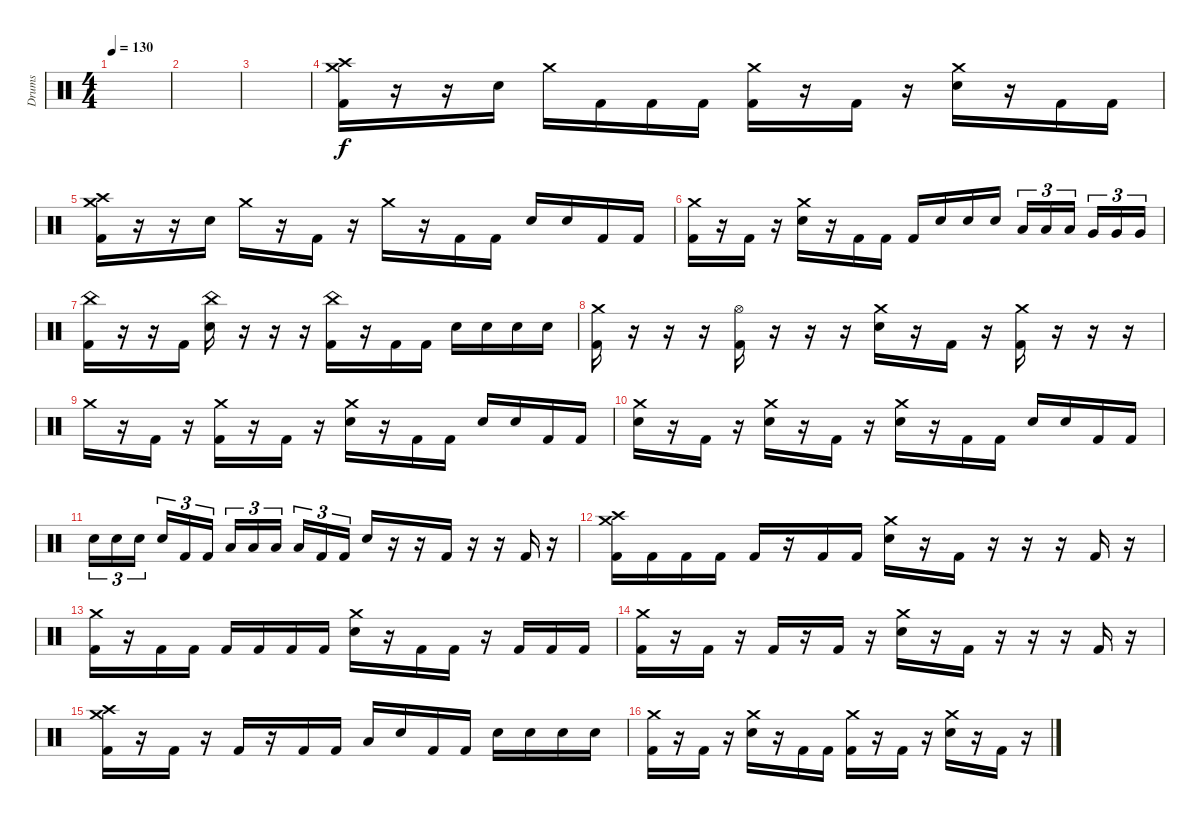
\track ("Drums" "Drums") {instrument percussion}
\staff {score}
\articulation defaults
\ts (4 4)
\tempo 130
\clef neutral
\ks c
|
|
|
("Crash medium (hit)" "Crash high (hit)" "Kick (hit) 2").16{dy f} r.16 r.16 "Electric Snare (hit)".16 "Crash medium (hit)".16 "Kick (hit) 2".16 "Kick (hit) 2".16 "Kick (hit) 2".16 ("Crash medium (hit)" "Kick (hit) 2").16 r.16 "Kick (hit) 2".16 r.16 ("Crash medium (hit)" "Electric Snare (hit)").16 r.16 "Kick (hit) 2".16 "Kick (hit) 2".16 |
("Crash medium (hit)" "Crash high (hit)" "Kick (hit) 2").16 r.16 r.16 "Electric Snare (hit)".16 "Crash medium (hit)".16 r.16 "Kick (hit) 2".16 r.16 "Crash medium (hit)".16 r.16 "Kick (hit) 2".16 "Kick (hit) 2".16 "Electric Snare (hit)".16 "Electric Snare (hit)".16 "Kick (hit) 2".16 "Kick (hit) 2".16 |
("Crash medium (hit)" "Kick (hit) 2").16 r.16 "Kick (hit) 2".16 r.16 ("Crash medium (hit)" "Electric Snare (hit)").16 r.16 "Kick (hit) 2".16 "Kick (hit) 2".16 "Kick (hit) 2".16 "Electric Snare (hit)".16 "Electric Snare (hit)".16 "Electric Snare (hit)".16 "Low Tom (hit)".16{tu (3 2)} "Low Tom (hit)".16{tu (3 2)} "Low Tom (hit)".16{tu (3 2) beam splitsecondary} "Very Low Tom (hit)".16{tu (3 2)} "Very Low Tom (hit)".16{tu (3 2)} "Very Low Tom (hit)".16{tu (3 2)} |
("China (hit)" "Kick (hit) 2").16 r.16 r.16 "Kick (hit) 2".16 ("China (hit)" "Electric Snare (hit)").16 r.16 r.16 r.16 ("China (hit)" "Kick (hit) 2").16 r.16 "Kick (hit) 2".16 "Kick (hit) 2".16 "Electric Snare (hit)".16 "Electric Snare (hit)".16 "Electric Snare (hit)".16 "Electric Snare (hit)".16 |
("Crash medium (hit)" "Kick (hit) 2").16 r.16 r.16 r.16 ("Hi-Hat (open)" "Kick (hit) 2").16 r.16 r.16 r.16 ("Crash medium (hit)" "Electric Snare (hit)").16 r.16 "Kick (hit) 2".16 r.16 ("Crash medium (hit)" "Kick (hit) 2").16 r.16 r.16 r.16 |
"Crash medium (hit)".16 r.16 "Kick (hit) 2".16 r.16 ("Crash medium (hit)" "Kick (hit) 2").16 r.16 "Kick (hit) 2".16 r.16 ("Crash medium (hit)" "Electric Snare (hit)").16 r.16 "Kick (hit) 2".16 "Kick (hit) 2".16 "Electric Snare (hit)".16 "Electric Snare (hit)".16 "Kick (hit) 2".16 "Kick (hit) 2".16 |
("Crash medium (hit)" "Electric Snare (hit)").16 r.16 "Kick (hit) 2".16 r.16 ("Crash medium (hit)" "Electric Snare (hit)").16 r.16 "Kick (hit) 2".16 r.16 ("Crash medium (hit)" "Electric Snare (hit)").16 r.16 "Kick (hit) 2".16 "Kick (hit) 2".16 "Electric Snare (hit)".16 "Electric Snare (hit)".16 "Kick (hit) 2".16 "Kick (hit) 2".16 |
"Electric Snare (hit)".16{tu (3 2)} "Electric Snare (hit)".16{tu (3 2)} "Electric Snare (hit)".16{tu (3 2) beam splitsecondary} "Electric Snare (hit)".16{tu (3 2)} "Kick (hit) 2".16{tu (3 2)} "Kick (hit) 2".16{tu (3 2)} "Low Tom (hit)".16{tu (3 2)} "Low Tom (hit)".16{tu (3 2)} "Low Tom (hit)".16{tu (3 2) beam splitsecondary} "Low Tom (hit)".16{tu (3 2)} "Kick (hit) 2".16{tu (3 2)} "Kick (hit) 2".16{tu (3 2)} "Electric Snare (hit)".16 r.16 r.16 "Kick (hit) 2".16 r.16 r.16 "Kick (hit) 2".16 r.16 |
("Crash medium (hit)" "Crash high (hit)" "Kick (hit) 2").16 "Kick (hit) 2".16 "Kick (hit) 2".16 "Kick (hit) 2".16 "Kick (hit) 2".16 r.16 "Kick (hit) 2".16 "Kick (hit) 2".16 ("Crash medium (hit)" "Electric Snare (hit)").16 r.16 "Kick (hit) 2".16 r.16 r.16 r.16 "Kick (hit) 2".16 r.16 |
("Crash medium (hit)" "Kick (hit) 2").16 r.16 "Kick (hit) 2".16 "Kick (hit) 2".16 "Kick (hit) 2".16 "Kick (hit) 2".16 "Kick (hit) 2".16 "Kick (hit) 2".16 ("Crash medium (hit)" "Electric Snare (hit)").16 r.16 "Kick (hit) 2".16 "Kick (hit) 2".16 r.16 "Kick (hit) 2".16 "Kick (hit) 2".16 "Kick (hit) 2".16 |
("Crash medium (hit)" "Kick (hit) 2").16 r.16 "Kick (hit) 2".16 r.16 "Kick (hit) 2".16 r.16 "Kick (hit) 2".16 r.16 ("Crash medium (hit)" "Electric Snare (hit)").16 r.16 "Kick (hit) 2".16 r.16 r.16 r.16 "Kick (hit) 2".16 r.16 |
("Crash medium (hit)" "Crash high (hit)" "Kick (hit) 2").16 r.16 "Kick (hit) 2".16 r.16 "Kick (hit) 2".16 r.16 "Kick (hit) 2".16 "Kick (hit) 2".16 "Low Tom (hit)".16 "Electric Snare (hit)".16 "Kick (hit) 2".16 "Kick (hit) 2".16 "Electric Snare (hit)".16 "Electric Snare (hit)".16 "Electric Snare (hit)".16 "Electric Snare (hit)".16 |
("Crash medium (hit)" "Kick (hit) 2").16 r.16 "Kick (hit) 2".16 r.16 ("Crash medium (hit)" "Electric Snare (hit)").16 r.16 "Kick (hit) 2".16 "Kick (hit) 2".16 ("Crash medium (hit)" "Kick (hit) 2").16 r.16 "Kick (hit) 2".16 r.16 ("Crash medium (hit)" "Electric Snare (hit)").16 r.16 "Kick (hit) 2".16 r.16
